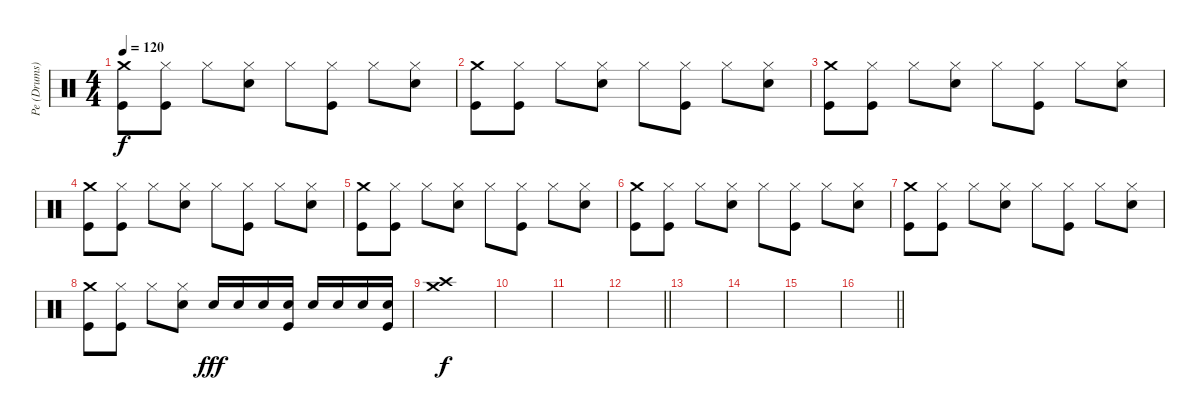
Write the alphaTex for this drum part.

\track ("Pe (Drums)" "Pe (Drums)") {instrument percussion}
\staff {score}
\articulation defaults
\ts (4 4)
\tempo 120
\clef neutral
\ks c
("Crash medium (hit)" "Kick (hit)").8{dy f} ("Hi-Hat (closed)" "Kick (hit)").8 "Hi-Hat (closed)".8 ("Hi-Hat (closed)" "Electric Snare (hit)").8 "Hi-Hat (closed)".8 ("Hi-Hat (closed)" "Kick (hit)").8 "Hi-Hat (closed)".8 ("Hi-Hat (closed)" "Electric Snare (hit)").8 |
("Crash medium (hit)" "Kick (hit)").8 ("Hi-Hat (closed)" "Kick (hit)").8 "Hi-Hat (closed)".8 ("Hi-Hat (closed)" "Electric Snare (hit)").8 "Hi-Hat (closed)".8 ("Hi-Hat (closed)" "Kick (hit)").8 "Hi-Hat (closed)".8 ("Hi-Hat (closed)" "Electric Snare (hit)").8 |
("Crash medium (hit)" "Kick (hit)").8 ("Hi-Hat (closed)" "Kick (hit)").8 "Hi-Hat (closed)".8 ("Hi-Hat (closed)" "Electric Snare (hit)").8 "Hi-Hat (closed)".8 ("Hi-Hat (closed)" "Kick (hit)").8 "Hi-Hat (closed)".8 ("Hi-Hat (closed)" "Electric Snare (hit)").8 |
("Crash medium (hit)" "Kick (hit)").8 ("Hi-Hat (closed)" "Kick (hit)").8 "Hi-Hat (closed)".8 ("Hi-Hat (closed)" "Electric Snare (hit)").8 "Hi-Hat (closed)".8 ("Hi-Hat (closed)" "Kick (hit)").8 "Hi-Hat (closed)".8 ("Hi-Hat (closed)" "Electric Snare (hit)").8 |
("Crash medium (hit)" "Kick (hit)").8 ("Hi-Hat (closed)" "Kick (hit)").8 "Hi-Hat (closed)".8 ("Hi-Hat (closed)" "Electric Snare (hit)").8 "Hi-Hat (closed)".8 ("Hi-Hat (closed)" "Kick (hit)").8 "Hi-Hat (closed)".8 ("Hi-Hat (closed)" "Electric Snare (hit)").8 |
("Crash medium (hit)" "Kick (hit)").8 ("Hi-Hat (closed)" "Kick (hit)").8 "Hi-Hat (closed)".8 ("Hi-Hat (closed)" "Electric Snare (hit)").8 "Hi-Hat (closed)".8 ("Hi-Hat (closed)" "Kick (hit)").8 "Hi-Hat (closed)".8 ("Hi-Hat (closed)" "Electric Snare (hit)").8 |
("Crash medium (hit)" "Kick (hit)").8 ("Hi-Hat (closed)" "Kick (hit)").8 "Hi-Hat (closed)".8 ("Hi-Hat (closed)" "Electric Snare (hit)").8 "Hi-Hat (closed)".8 ("Hi-Hat (closed)" "Kick (hit)").8 "Hi-Hat (closed)".8 ("Hi-Hat (closed)" "Electric Snare (hit)").8 |
("Crash medium (hit)" "Kick (hit)").8 ("Hi-Hat (closed)" "Kick (hit)").8 "Hi-Hat (closed)".8 ("Hi-Hat (closed)" "Electric Snare (hit)").8 "Electric Snare (hit)".16{dy fff} "Electric Snare (hit)".16 "Electric Snare (hit)".16 ("Electric Snare (hit)" "Kick (hit)").16 "Electric Snare (hit)".16 "Electric Snare (hit)".16 "Electric Snare (hit)".16 ("Electric Snare (hit)" "Kick (hit)").16 |
("Crash medium (hit)" "Crash high (hit)").1{dy f} |
|
|
\barLineRight lightlight
|
|
|
|
\barLineRight lightlight
